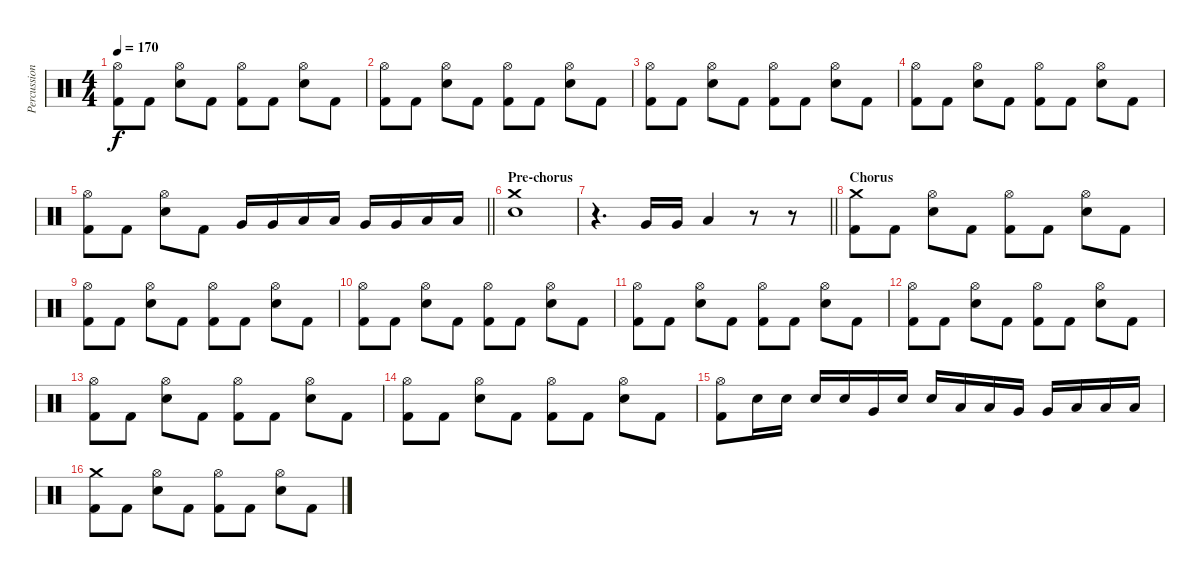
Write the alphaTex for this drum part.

\track ("Percussions" "Percussion") {instrument percussion}
\staff {score}
\articulation defaults
\ts (4 4)
\tempo 170
\clef neutral
\ks c
("Hi-Hat (open)" "Kick (hit) 2").8{dy f} "Kick (hit) 2".8 ("Hi-Hat (open)" "Electric Snare (hit)").8 "Kick (hit) 2".8 ("Hi-Hat (open)" "Kick (hit) 2").8 "Kick (hit) 2".8 ("Hi-Hat (open)" "Electric Snare (hit)").8 "Kick (hit) 2".8 |
("Hi-Hat (open)" "Kick (hit) 2").8 "Kick (hit) 2".8 ("Hi-Hat (open)" "Electric Snare (hit)").8 "Kick (hit) 2".8 ("Hi-Hat (open)" "Kick (hit) 2").8 "Kick (hit) 2".8 ("Hi-Hat (open)" "Electric Snare (hit)").8 "Kick (hit) 2".8 |
("Hi-Hat (open)" "Kick (hit) 2").8 "Kick (hit) 2".8 ("Hi-Hat (open)" "Electric Snare (hit)").8 "Kick (hit) 2".8 ("Hi-Hat (open)" "Kick (hit) 2").8 "Kick (hit) 2".8 ("Hi-Hat (open)" "Electric Snare (hit)").8 "Kick (hit) 2".8 |
("Hi-Hat (open)" "Kick (hit) 2").8 "Kick (hit) 2".8 ("Hi-Hat (open)" "Electric Snare (hit)").8 "Kick (hit) 2".8 ("Hi-Hat (open)" "Kick (hit) 2").8 "Kick (hit) 2".8 ("Hi-Hat (open)" "Electric Snare (hit)").8 "Kick (hit) 2".8 |
\barLineRight lightlight
("Hi-Hat (open)" "Kick (hit) 2").8 "Kick (hit) 2".8 ("Hi-Hat (open)" "Electric Snare (hit)").8 "Kick (hit) 2".8 "Very Low Tom (hit)".16 "Very Low Tom (hit)".16 "Low Floor Tom (hit)".16 "Low Floor Tom (hit)".16 "Very Low Tom (hit)".16 "Very Low Tom (hit)".16 "Low Floor Tom (hit)".16 "Low Floor Tom (hit)".16 |
\section ("" "Pre-chorus")
("Crash medium (hit)" "Electric Snare (hit)").1 |
\barLineRight lightlight
r.4{d} "Very Low Tom (hit)".16 "Very Low Tom (hit)".16 "Low Floor Tom (hit)".4 r.8 r.8 |
\section ("" "Chorus")
("Crash medium (hit)" "Kick (hit) 2").8 "Kick (hit) 2".8 ("Hi-Hat (open)" "Electric Snare (hit)").8 "Kick (hit) 2".8 ("Hi-Hat (open)" "Kick (hit) 2").8 "Kick (hit) 2".8 ("Hi-Hat (open)" "Electric Snare (hit)").8 "Kick (hit) 2".8 |
("Hi-Hat (open)" "Kick (hit) 2").8 "Kick (hit) 2".8 ("Hi-Hat (open)" "Electric Snare (hit)").8 "Kick (hit) 2".8 ("Hi-Hat (open)" "Kick (hit) 2").8 "Kick (hit) 2".8 ("Hi-Hat (open)" "Electric Snare (hit)").8 "Kick (hit) 2".8 |
("Hi-Hat (open)" "Kick (hit) 2").8 "Kick (hit) 2".8 ("Hi-Hat (open)" "Electric Snare (hit)").8 "Kick (hit) 2".8 ("Hi-Hat (open)" "Kick (hit) 2").8 "Kick (hit) 2".8 ("Hi-Hat (open)" "Electric Snare (hit)").8 "Kick (hit) 2".8 |
("Hi-Hat (open)" "Kick (hit) 2").8 "Kick (hit) 2".8 ("Hi-Hat (open)" "Electric Snare (hit)").8 "Kick (hit) 2".8 ("Hi-Hat (open)" "Kick (hit) 2").8 "Kick (hit) 2".8 ("Hi-Hat (open)" "Electric Snare (hit)").8 "Kick (hit) 2".8 |
("Hi-Hat (open)" "Kick (hit) 2").8 "Kick (hit) 2".8 ("Hi-Hat (open)" "Electric Snare (hit)").8 "Kick (hit) 2".8 ("Hi-Hat (open)" "Kick (hit) 2").8 "Kick (hit) 2".8 ("Hi-Hat (open)" "Electric Snare (hit)").8 "Kick (hit) 2".8 |
("Hi-Hat (open)" "Kick (hit) 2").8 "Kick (hit) 2".8 ("Hi-Hat (open)" "Electric Snare (hit)").8 "Kick (hit) 2".8 ("Hi-Hat (open)" "Kick (hit) 2").8 "Kick (hit) 2".8 ("Hi-Hat (open)" "Electric Snare (hit)").8 "Kick (hit) 2".8 |
("Hi-Hat (open)" "Kick (hit) 2").8 "Kick (hit) 2".8 ("Hi-Hat (open)" "Electric Snare (hit)").8 "Kick (hit) 2".8 ("Hi-Hat (open)" "Kick (hit) 2").8 "Kick (hit) 2".8 ("Hi-Hat (open)" "Electric Snare (hit)").8 "Kick (hit) 2".8 |
("Hi-Hat (open)" "Kick (hit) 2").8 "Snare (hit) 2".16 "Snare (hit) 2".16 "Snare (hit) 2".16 "Snare (hit) 2".16 "Very Low Tom (hit)".16 "Snare (hit) 2".16 "Snare (hit) 2".16 "Low Tom (hit)".16 "Low Tom (hit)".16 "Very Low Tom (hit)".16 "Very Low Tom (hit)".16 "Low Floor Tom (hit)".16 "Low Floor Tom (hit)".16 "Low Floor Tom (hit)".16 |
("Crash medium (hit)" "Kick (hit) 2").8 "Kick (hit) 2".8 ("Hi-Hat (open)" "Electric Snare (hit)").8 "Kick (hit) 2".8 ("Hi-Hat (open)" "Kick (hit) 2").8 "Kick (hit) 2".8 ("Hi-Hat (open)" "Electric Snare (hit)").8 "Kick (hit) 2".8
